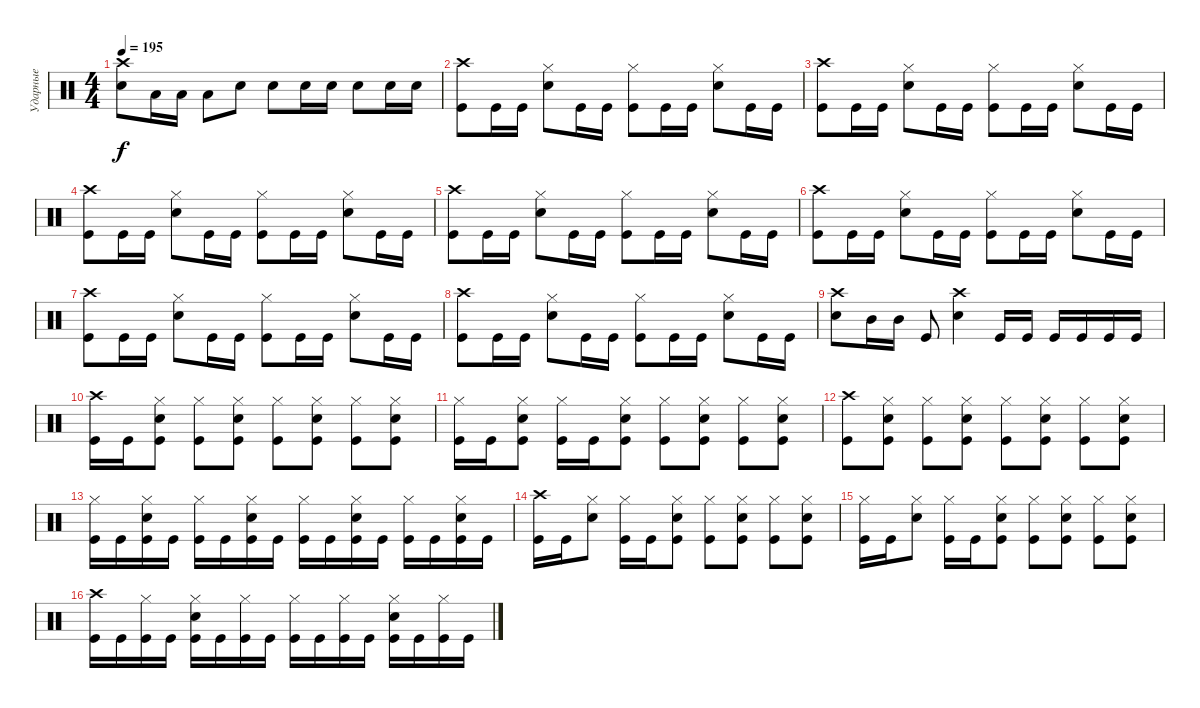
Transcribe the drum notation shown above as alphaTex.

\track ("Ударные" "Ударные") {instrument percussion}
\staff {score}
\articulation defaults
\ts (4 4)
\tempo 195
\clef neutral
\ks c
("Crash high (hit)" "Electric Snare (hit)").8{dy f} "Low Tom (hit)".16 "Low Tom (hit)".16 "Low Tom (hit)".8 "Electric Snare (hit)".8 "Electric Snare (hit)".8 "Electric Snare (hit)".16 "Electric Snare (hit)".16 "Electric Snare (hit)".8 "Electric Snare (hit)".16 "Electric Snare (hit)".16 |
("Crash high (hit)" "Kick (hit)").8 "Kick (hit)".16 "Kick (hit)".16 ("Hi-Hat (closed)" "Electric Snare (hit)").8 "Kick (hit)".16 "Kick (hit)".16 ("Hi-Hat (closed)" "Kick (hit)").8 "Kick (hit)".16 "Kick (hit)".16 ("Hi-Hat (closed)" "Electric Snare (hit)").8 "Kick (hit)".16 "Kick (hit)".16 |
("Crash high (hit)" "Kick (hit)").8 "Kick (hit)".16 "Kick (hit)".16 ("Hi-Hat (closed)" "Electric Snare (hit)").8 "Kick (hit)".16 "Kick (hit)".16 ("Hi-Hat (closed)" "Kick (hit)").8 "Kick (hit)".16 "Kick (hit)".16 ("Hi-Hat (closed)" "Electric Snare (hit)").8 "Kick (hit)".16 "Kick (hit)".16 |
("Crash high (hit)" "Kick (hit)").8 "Kick (hit)".16 "Kick (hit)".16 ("Hi-Hat (closed)" "Electric Snare (hit)").8 "Kick (hit)".16 "Kick (hit)".16 ("Hi-Hat (closed)" "Kick (hit)").8 "Kick (hit)".16 "Kick (hit)".16 ("Hi-Hat (closed)" "Electric Snare (hit)").8 "Kick (hit)".16 "Kick (hit)".16 |
("Crash high (hit)" "Kick (hit)").8 "Kick (hit)".16 "Kick (hit)".16 ("Hi-Hat (closed)" "Electric Snare (hit)").8 "Kick (hit)".16 "Kick (hit)".16 ("Hi-Hat (closed)" "Kick (hit)").8 "Kick (hit)".16 "Kick (hit)".16 ("Hi-Hat (closed)" "Electric Snare (hit)").8 "Kick (hit)".16 "Kick (hit)".16 |
("Crash high (hit)" "Kick (hit)").8 "Kick (hit)".16 "Kick (hit)".16 ("Hi-Hat (closed)" "Electric Snare (hit)").8 "Kick (hit)".16 "Kick (hit)".16 ("Hi-Hat (closed)" "Kick (hit)").8 "Kick (hit)".16 "Kick (hit)".16 ("Hi-Hat (closed)" "Electric Snare (hit)").8 "Kick (hit)".16 "Kick (hit)".16 |
("Crash high (hit)" "Kick (hit)").8 "Kick (hit)".16 "Kick (hit)".16 ("Hi-Hat (closed)" "Electric Snare (hit)").8 "Kick (hit)".16 "Kick (hit)".16 ("Hi-Hat (closed)" "Kick (hit)").8 "Kick (hit)".16 "Kick (hit)".16 ("Hi-Hat (closed)" "Electric Snare (hit)").8 "Kick (hit)".16 "Kick (hit)".16 |
("Crash high (hit)" "Kick (hit)").8 "Kick (hit)".16 "Kick (hit)".16 ("Hi-Hat (closed)" "Electric Snare (hit)").8 "Kick (hit)".16 "Kick (hit)".16 ("Hi-Hat (closed)" "Kick (hit)").8 "Kick (hit)".16 "Kick (hit)".16 ("Hi-Hat (closed)" "Electric Snare (hit)").8 "Kick (hit)".16 "Kick (hit)".16 |
("Crash high (hit)" "Electric Snare (hit)").8 "Mid Tom (hit)".16 "Mid Tom (hit)".16 "Kick (hit)".8 ("Crash high (hit)" "Electric Snare (hit)").4 "Kick (hit)".16 "Kick (hit)".16 "Kick (hit)".16 "Kick (hit)".16 "Kick (hit)".16 "Kick (hit)".16 |
("Crash high (hit)" "Kick (hit)").16 "Kick (hit)".16 ("Hi-Hat (closed)" "Electric Snare (hit)" "Kick (hit)").8 ("Hi-Hat (closed)" "Kick (hit)").8 ("Hi-Hat (closed)" "Electric Snare (hit)" "Kick (hit)").8 ("Hi-Hat (closed)" "Kick (hit)").8 ("Hi-Hat (closed)" "Electric Snare (hit)" "Kick (hit)").8 ("Hi-Hat (closed)" "Kick (hit)").8 ("Hi-Hat (closed)" "Electric Snare (hit)" "Kick (hit)").8 |
("Hi-Hat (closed)" "Kick (hit)").16 "Kick (hit)".16 ("Hi-Hat (closed)" "Electric Snare (hit)" "Kick (hit)").8 ("Hi-Hat (closed)" "Kick (hit)").16 "Kick (hit)".16 ("Hi-Hat (closed)" "Electric Snare (hit)" "Kick (hit)").8 ("Hi-Hat (closed)" "Kick (hit)").8 ("Hi-Hat (closed)" "Electric Snare (hit)" "Kick (hit)").8 ("Hi-Hat (closed)" "Kick (hit)").8 ("Hi-Hat (closed)" "Electric Snare (hit)" "Kick (hit)").8 |
("Crash high (hit)" "Kick (hit)").8 ("Hi-Hat (closed)" "Electric Snare (hit)" "Kick (hit)").8 ("Hi-Hat (closed)" "Kick (hit)").8 ("Hi-Hat (closed)" "Electric Snare (hit)" "Kick (hit)").8 ("Hi-Hat (closed)" "Kick (hit)").8 ("Hi-Hat (closed)" "Electric Snare (hit)" "Kick (hit)").8 ("Hi-Hat (closed)" "Kick (hit)").8 ("Hi-Hat (closed)" "Electric Snare (hit)" "Kick (hit)").8 |
("Hi-Hat (closed)" "Kick (hit)").16 "Kick (hit)".16 ("Hi-Hat (closed)" "Electric Snare (hit)" "Kick (hit)").16 "Kick (hit)".16 ("Hi-Hat (closed)" "Kick (hit)").16 "Kick (hit)".16 ("Hi-Hat (closed)" "Electric Snare (hit)" "Kick (hit)").16 "Kick (hit)".16 ("Hi-Hat (closed)" "Kick (hit)").16 "Kick (hit)".16 ("Hi-Hat (closed)" "Electric Snare (hit)" "Kick (hit)").16 "Kick (hit)".16 ("Hi-Hat (closed)" "Kick (hit)").16 "Kick (hit)".16 ("Hi-Hat (closed)" "Electric Snare (hit)" "Kick (hit)").16 "Kick (hit)".16 |
("Crash high (hit)" "Kick (hit)").16 "Kick (hit)".16 ("Hi-Hat (closed)" "Electric Snare (hit)").8 ("Hi-Hat (closed)" "Kick (hit)").16 "Kick (hit)".16 ("Hi-Hat (closed)" "Electric Snare (hit)" "Kick (hit)").8 ("Hi-Hat (closed)" "Kick (hit)").8 ("Hi-Hat (closed)" "Electric Snare (hit)" "Kick (hit)").8 ("Hi-Hat (closed)" "Kick (hit)").8 ("Hi-Hat (closed)" "Electric Snare (hit)" "Kick (hit)").8 |
("Hi-Hat (closed)" "Kick (hit)").16 "Kick (hit)".16 ("Hi-Hat (closed)" "Electric Snare (hit)").8 ("Hi-Hat (closed)" "Kick (hit)").16 "Kick (hit)".16 ("Hi-Hat (closed)" "Electric Snare (hit)" "Kick (hit)").8 ("Hi-Hat (closed)" "Kick (hit)").8 ("Hi-Hat (closed)" "Electric Snare (hit)" "Kick (hit)").8 ("Hi-Hat (closed)" "Kick (hit)").8 ("Hi-Hat (closed)" "Electric Snare (hit)" "Kick (hit)").8 |
("Crash high (hit)" "Kick (hit)").16 "Kick (hit)".16 ("Hi-Hat (closed)" "Kick (hit)").16 "Kick (hit)".16 ("Hi-Hat (closed)" "Electric Snare (hit)" "Kick (hit)").16 "Kick (hit)".16 ("Hi-Hat (closed)" "Kick (hit)").16 "Kick (hit)".16 ("Hi-Hat (closed)" "Kick (hit)").16 "Kick (hit)".16 ("Hi-Hat (closed)" "Kick (hit)").16 "Kick (hit)".16 ("Hi-Hat (closed)" "Electric Snare (hit)" "Kick (hit)").16 "Kick (hit)".16 ("Hi-Hat (closed)" "Kick (hit)").16 "Kick (hit)".16
